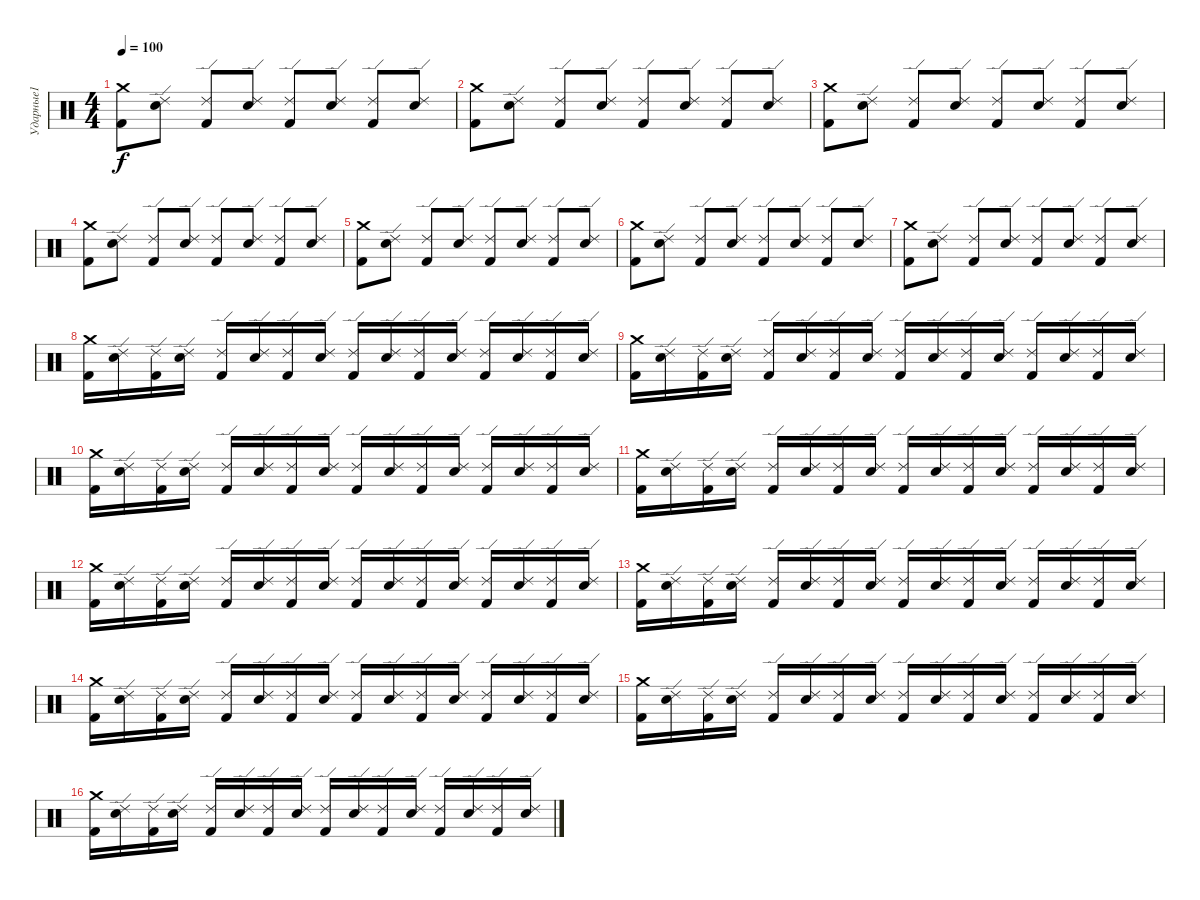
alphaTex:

\track ("Ударные1" "Ударные1") {instrument percussion}
\staff {score}
\articulation defaults
\ts (4 4)
\tempo 100
\clef neutral
\ks c
("Kick (hit) 2" "Crash medium (hit)").8{dy f} ("Snare (hit) 2" "Ride (edge) 2").8 ("Kick (hit) 2" "Ride (edge) 2").8 ("Snare (hit) 2" "Ride (edge) 2").8 ("Kick (hit) 2" "Ride (edge) 2").8 ("Snare (hit) 2" "Ride (edge) 2").8 ("Kick (hit) 2" "Ride (edge) 2").8 ("Snare (hit) 2" "Ride (edge) 2").8 |
("Kick (hit) 2" "Crash medium (hit)").8 ("Snare (hit) 2" "Ride (edge) 2").8 ("Kick (hit) 2" "Ride (edge) 2").8 ("Snare (hit) 2" "Ride (edge) 2").8 ("Kick (hit) 2" "Ride (edge) 2").8 ("Snare (hit) 2" "Ride (edge) 2").8 ("Kick (hit) 2" "Ride (edge) 2").8 ("Snare (hit) 2" "Ride (edge) 2").8 |
("Kick (hit) 2" "Crash medium (hit)").8 ("Snare (hit) 2" "Ride (edge) 2").8 ("Kick (hit) 2" "Ride (edge) 2").8 ("Snare (hit) 2" "Ride (edge) 2").8 ("Kick (hit) 2" "Ride (edge) 2").8 ("Snare (hit) 2" "Ride (edge) 2").8 ("Kick (hit) 2" "Ride (edge) 2").8 ("Snare (hit) 2" "Ride (edge) 2").8 |
("Kick (hit) 2" "Crash medium (hit)").8 ("Snare (hit) 2" "Ride (edge) 2").8 ("Kick (hit) 2" "Ride (edge) 2").8 ("Snare (hit) 2" "Ride (edge) 2").8 ("Kick (hit) 2" "Ride (edge) 2").8 ("Snare (hit) 2" "Ride (edge) 2").8 ("Kick (hit) 2" "Ride (edge) 2").8 ("Snare (hit) 2" "Ride (edge) 2").8 |
("Kick (hit) 2" "Crash medium (hit)").8 ("Snare (hit) 2" "Ride (edge) 2").8 ("Kick (hit) 2" "Ride (edge) 2").8 ("Snare (hit) 2" "Ride (edge) 2").8 ("Kick (hit) 2" "Ride (edge) 2").8 ("Snare (hit) 2" "Ride (edge) 2").8 ("Kick (hit) 2" "Ride (edge) 2").8 ("Snare (hit) 2" "Ride (edge) 2").8 |
("Kick (hit) 2" "Crash medium (hit)").8 ("Snare (hit) 2" "Ride (edge) 2").8 ("Kick (hit) 2" "Ride (edge) 2").8 ("Snare (hit) 2" "Ride (edge) 2").8 ("Kick (hit) 2" "Ride (edge) 2").8 ("Snare (hit) 2" "Ride (edge) 2").8 ("Kick (hit) 2" "Ride (edge) 2").8 ("Snare (hit) 2" "Ride (edge) 2").8 |
("Kick (hit) 2" "Crash medium (hit)").8 ("Snare (hit) 2" "Ride (edge) 2").8 ("Kick (hit) 2" "Ride (edge) 2").8 ("Snare (hit) 2" "Ride (edge) 2").8 ("Kick (hit) 2" "Ride (edge) 2").8 ("Snare (hit) 2" "Ride (edge) 2").8 ("Kick (hit) 2" "Ride (edge) 2").8 ("Snare (hit) 2" "Ride (edge) 2").8 |
("Kick (hit) 2" "Crash medium (hit)").16 ("Snare (hit) 2" "Ride (edge) 2").16 ("Kick (hit) 2" "Ride (edge) 2").16 ("Snare (hit) 2" "Ride (edge) 2").16 ("Kick (hit) 2" "Ride (edge) 2").16 ("Snare (hit) 2" "Ride (edge) 2").16 ("Kick (hit) 2" "Ride (edge) 2").16 ("Snare (hit) 2" "Ride (edge) 2").16 ("Kick (hit) 2" "Ride (edge) 2").16 ("Snare (hit) 2" "Ride (edge) 2").16 ("Kick (hit) 2" "Ride (edge) 2").16 ("Snare (hit) 2" "Ride (edge) 2").16 ("Kick (hit) 2" "Ride (edge) 2").16 ("Snare (hit) 2" "Ride (edge) 2").16 ("Kick (hit) 2" "Ride (edge) 2").16 ("Snare (hit) 2" "Ride (edge) 2").16 |
("Kick (hit) 2" "Crash medium (hit)").16 ("Snare (hit) 2" "Ride (edge) 2").16 ("Kick (hit) 2" "Ride (edge) 2").16 ("Snare (hit) 2" "Ride (edge) 2").16 ("Kick (hit) 2" "Ride (edge) 2").16 ("Snare (hit) 2" "Ride (edge) 2").16 ("Kick (hit) 2" "Ride (edge) 2").16 ("Snare (hit) 2" "Ride (edge) 2").16 ("Kick (hit) 2" "Ride (edge) 2").16 ("Snare (hit) 2" "Ride (edge) 2").16 ("Kick (hit) 2" "Ride (edge) 2").16 ("Snare (hit) 2" "Ride (edge) 2").16 ("Kick (hit) 2" "Ride (edge) 2").16 ("Snare (hit) 2" "Ride (edge) 2").16 ("Kick (hit) 2" "Ride (edge) 2").16 ("Snare (hit) 2" "Ride (edge) 2").16 |
("Kick (hit) 2" "Crash medium (hit)").16 ("Snare (hit) 2" "Ride (edge) 2").16 ("Kick (hit) 2" "Ride (edge) 2").16 ("Snare (hit) 2" "Ride (edge) 2").16 ("Kick (hit) 2" "Ride (edge) 2").16 ("Snare (hit) 2" "Ride (edge) 2").16 ("Kick (hit) 2" "Ride (edge) 2").16 ("Snare (hit) 2" "Ride (edge) 2").16 ("Kick (hit) 2" "Ride (edge) 2").16 ("Snare (hit) 2" "Ride (edge) 2").16 ("Kick (hit) 2" "Ride (edge) 2").16 ("Snare (hit) 2" "Ride (edge) 2").16 ("Kick (hit) 2" "Ride (edge) 2").16 ("Snare (hit) 2" "Ride (edge) 2").16 ("Kick (hit) 2" "Ride (edge) 2").16 ("Snare (hit) 2" "Ride (edge) 2").16 |
("Kick (hit) 2" "Crash medium (hit)").16 ("Snare (hit) 2" "Ride (edge) 2").16 ("Kick (hit) 2" "Ride (edge) 2").16 ("Snare (hit) 2" "Ride (edge) 2").16 ("Kick (hit) 2" "Ride (edge) 2").16 ("Snare (hit) 2" "Ride (edge) 2").16 ("Kick (hit) 2" "Ride (edge) 2").16 ("Snare (hit) 2" "Ride (edge) 2").16 ("Kick (hit) 2" "Ride (edge) 2").16 ("Snare (hit) 2" "Ride (edge) 2").16 ("Kick (hit) 2" "Ride (edge) 2").16 ("Snare (hit) 2" "Ride (edge) 2").16 ("Kick (hit) 2" "Ride (edge) 2").16 ("Snare (hit) 2" "Ride (edge) 2").16 ("Kick (hit) 2" "Ride (edge) 2").16 ("Snare (hit) 2" "Ride (edge) 2").16 |
("Kick (hit) 2" "Crash medium (hit)").16 ("Snare (hit) 2" "Ride (edge) 2").16 ("Kick (hit) 2" "Ride (edge) 2").16 ("Snare (hit) 2" "Ride (edge) 2").16 ("Kick (hit) 2" "Ride (edge) 2").16 ("Snare (hit) 2" "Ride (edge) 2").16 ("Kick (hit) 2" "Ride (edge) 2").16 ("Snare (hit) 2" "Ride (edge) 2").16 ("Kick (hit) 2" "Ride (edge) 2").16 ("Snare (hit) 2" "Ride (edge) 2").16 ("Kick (hit) 2" "Ride (edge) 2").16 ("Snare (hit) 2" "Ride (edge) 2").16 ("Kick (hit) 2" "Ride (edge) 2").16 ("Snare (hit) 2" "Ride (edge) 2").16 ("Kick (hit) 2" "Ride (edge) 2").16 ("Snare (hit) 2" "Ride (edge) 2").16 |
("Kick (hit) 2" "Crash medium (hit)").16 ("Snare (hit) 2" "Ride (edge) 2").16 ("Kick (hit) 2" "Ride (edge) 2").16 ("Snare (hit) 2" "Ride (edge) 2").16 ("Kick (hit) 2" "Ride (edge) 2").16 ("Snare (hit) 2" "Ride (edge) 2").16 ("Kick (hit) 2" "Ride (edge) 2").16 ("Snare (hit) 2" "Ride (edge) 2").16 ("Kick (hit) 2" "Ride (edge) 2").16 ("Snare (hit) 2" "Ride (edge) 2").16 ("Kick (hit) 2" "Ride (edge) 2").16 ("Snare (hit) 2" "Ride (edge) 2").16 ("Kick (hit) 2" "Ride (edge) 2").16 ("Snare (hit) 2" "Ride (edge) 2").16 ("Kick (hit) 2" "Ride (edge) 2").16 ("Snare (hit) 2" "Ride (edge) 2").16 |
("Kick (hit) 2" "Crash medium (hit)").16 ("Snare (hit) 2" "Ride (edge) 2").16 ("Kick (hit) 2" "Ride (edge) 2").16 ("Snare (hit) 2" "Ride (edge) 2").16 ("Kick (hit) 2" "Ride (edge) 2").16 ("Snare (hit) 2" "Ride (edge) 2").16 ("Kick (hit) 2" "Ride (edge) 2").16 ("Snare (hit) 2" "Ride (edge) 2").16 ("Kick (hit) 2" "Ride (edge) 2").16 ("Snare (hit) 2" "Ride (edge) 2").16 ("Kick (hit) 2" "Ride (edge) 2").16 ("Snare (hit) 2" "Ride (edge) 2").16 ("Kick (hit) 2" "Ride (edge) 2").16 ("Snare (hit) 2" "Ride (edge) 2").16 ("Kick (hit) 2" "Ride (edge) 2").16 ("Snare (hit) 2" "Ride (edge) 2").16 |
("Kick (hit) 2" "Crash medium (hit)").16 ("Snare (hit) 2" "Ride (edge) 2").16 ("Kick (hit) 2" "Ride (edge) 2").16 ("Snare (hit) 2" "Ride (edge) 2").16 ("Kick (hit) 2" "Ride (edge) 2").16 ("Snare (hit) 2" "Ride (edge) 2").16 ("Kick (hit) 2" "Ride (edge) 2").16 ("Snare (hit) 2" "Ride (edge) 2").16 ("Kick (hit) 2" "Ride (edge) 2").16 ("Snare (hit) 2" "Ride (edge) 2").16 ("Kick (hit) 2" "Ride (edge) 2").16 ("Snare (hit) 2" "Ride (edge) 2").16 ("Kick (hit) 2" "Ride (edge) 2").16 ("Snare (hit) 2" "Ride (edge) 2").16 ("Kick (hit) 2" "Ride (edge) 2").16 ("Snare (hit) 2" "Ride (edge) 2").16 |
("Kick (hit) 2" "Crash medium (hit)").16 ("Snare (hit) 2" "Ride (edge) 2").16 ("Kick (hit) 2" "Ride (edge) 2").16 ("Snare (hit) 2" "Ride (edge) 2").16 ("Kick (hit) 2" "Ride (edge) 2").16 ("Snare (hit) 2" "Ride (edge) 2").16 ("Kick (hit) 2" "Ride (edge) 2").16 ("Snare (hit) 2" "Ride (edge) 2").16 ("Kick (hit) 2" "Ride (edge) 2").16 ("Snare (hit) 2" "Ride (edge) 2").16 ("Kick (hit) 2" "Ride (edge) 2").16 ("Snare (hit) 2" "Ride (edge) 2").16 ("Kick (hit) 2" "Ride (edge) 2").16 ("Snare (hit) 2" "Ride (edge) 2").16 ("Kick (hit) 2" "Ride (edge) 2").16 ("Snare (hit) 2" "Ride (edge) 2").16
